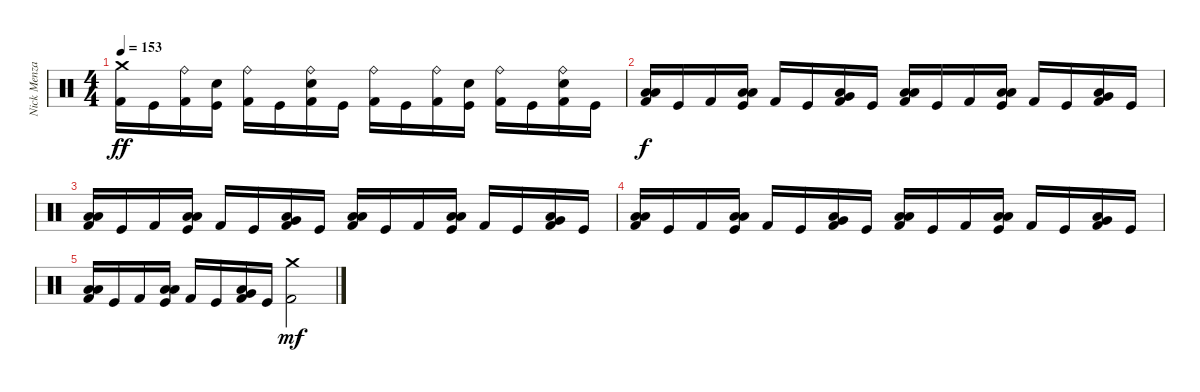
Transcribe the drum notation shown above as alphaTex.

\track ("Nick Menza" "Nick Menza") {instrument percussion}
\staff {score}
\articulation defaults
\ts (4 4)
\tempo 153
\clef neutral
\ks c
("Crash medium (hit)" "Kick (hit) 2").16{dy ff} "Kick (hit)".16 ("Ride (bell)" "Kick (hit) 2").16 ("Electric Snare (hit)" "Kick (hit)").16 ("Ride (bell)" "Kick (hit) 2").16 "Kick (hit)".16 ("Ride (bell)" "Electric Snare (hit)" "Kick (hit) 2").16 "Kick (hit)".16 ("Ride (bell)" "Kick (hit) 2").16 "Kick (hit)".16 ("Ride (bell)" "Kick (hit) 2").16 ("Electric Snare (hit)" "Kick (hit)").16 ("Ride (bell)" "Kick (hit) 2").16 "Kick (hit)".16 ("Ride (bell)" "Electric Snare (hit)" "Kick (hit) 2").16 "Kick (hit)".16 |
("Low Floor Tom (hit)" "Low Tom (hit)" "Kick (hit) 2").16{dy f} "Kick (hit)".16 "Kick (hit) 2".16 ("Low Floor Tom (hit)" "Low Tom (hit)" "Kick (hit)").16 "Kick (hit) 2".16 "Kick (hit)".16 ("Low Floor Tom (hit)" "Very Low Tom (hit)" "Kick (hit) 2").16 "Kick (hit)".16 ("Low Floor Tom (hit)" "Low Tom (hit)" "Kick (hit) 2").16 "Kick (hit)".16 "Kick (hit) 2".16 ("Low Floor Tom (hit)" "Low Tom (hit)" "Kick (hit)").16 "Kick (hit) 2".16 "Kick (hit)".16 ("Low Floor Tom (hit)" "Very Low Tom (hit)" "Kick (hit) 2").16 "Kick (hit)".16 |
("Low Floor Tom (hit)" "Low Tom (hit)" "Kick (hit) 2").16 "Kick (hit)".16 "Kick (hit) 2".16 ("Low Floor Tom (hit)" "Low Tom (hit)" "Kick (hit)").16 "Kick (hit) 2".16 "Kick (hit)".16 ("Low Floor Tom (hit)" "Very Low Tom (hit)" "Kick (hit) 2").16 "Kick (hit)".16 ("Low Floor Tom (hit)" "Low Tom (hit)" "Kick (hit) 2").16 "Kick (hit)".16 "Kick (hit) 2".16 ("Low Floor Tom (hit)" "Low Tom (hit)" "Kick (hit)").16 "Kick (hit) 2".16 "Kick (hit)".16 ("Low Floor Tom (hit)" "Very Low Tom (hit)" "Kick (hit) 2").16 "Kick (hit)".16 |
("Low Floor Tom (hit)" "Low Tom (hit)" "Kick (hit) 2").16 "Kick (hit)".16 "Kick (hit) 2".16 ("Low Floor Tom (hit)" "Low Tom (hit)" "Kick (hit)").16 "Kick (hit) 2".16 "Kick (hit)".16 ("Low Floor Tom (hit)" "Very Low Tom (hit)" "Kick (hit) 2").16 "Kick (hit)".16 ("Low Floor Tom (hit)" "Low Tom (hit)" "Kick (hit) 2").16 "Kick (hit)".16 "Kick (hit) 2".16 ("Low Floor Tom (hit)" "Low Tom (hit)" "Kick (hit)").16 "Kick (hit) 2".16 "Kick (hit)".16 ("Low Floor Tom (hit)" "Very Low Tom (hit)" "Kick (hit) 2").16 "Kick (hit)".16 |
("Low Floor Tom (hit)" "Low Tom (hit)" "Kick (hit) 2").16 "Kick (hit)".16 "Kick (hit) 2".16 ("Low Floor Tom (hit)" "Low Tom (hit)" "Kick (hit)").16 "Kick (hit) 2".16 "Kick (hit)".16 ("Low Floor Tom (hit)" "Very Low Tom (hit)" "Kick (hit) 2").16 "Kick (hit)".16 ("Crash medium (hit)" "Kick (hit) 2").2{dy mf}
